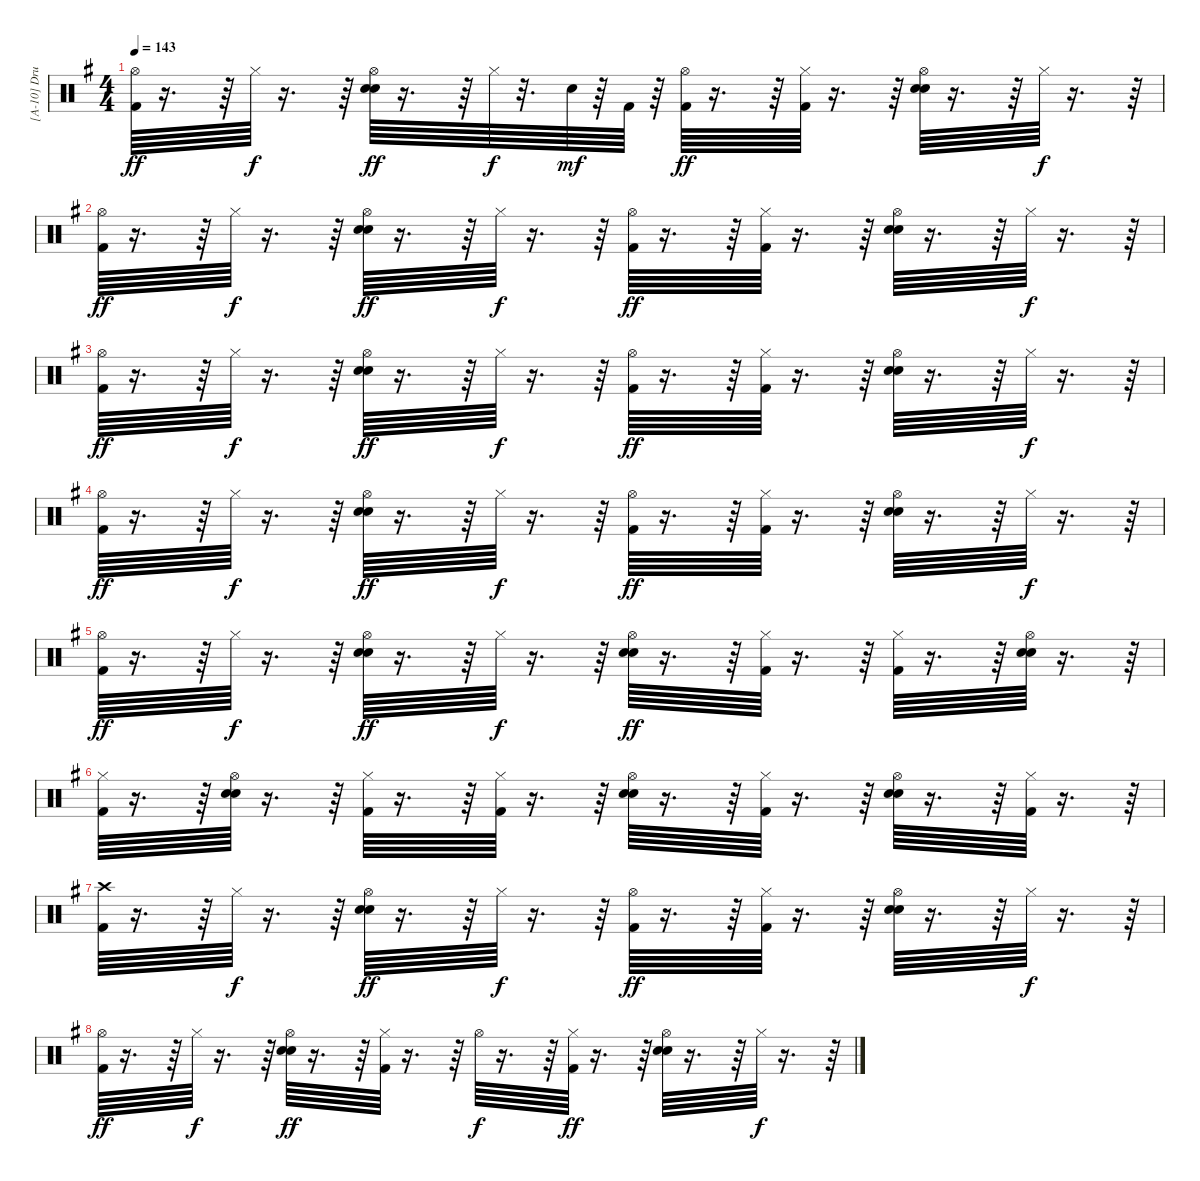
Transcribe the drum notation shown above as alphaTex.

\track ("[A-10] Drums" "[A-10] Dru") {instrument percussion}
\staff {score}
\articulation defaults
\ts (4 4)
\tempo 143
\clef neutral
\ks g
("Hi-Hat (open)" "Kick (hit) 2").64{dy ff} r.16{d} r.64 "Hi-Hat (closed)".64{dy f} r.16{d} r.64 ("Hi-Hat (open)" "Electric Snare (hit)" "Snare (hit) 2").64{dy ff} r.16{d} r.64 "Hi-Hat (closed)".64{dy f} r.32{d} "Snare (hit) 2".64{dy mf} r.64 "Kick (hit) 2".64 r.64 ("Hi-Hat (open)" "Kick (hit) 2").64{dy ff} r.16{d} r.64 ("Hi-Hat (closed)" "Kick (hit) 2").64 r.16{d} r.64 ("Hi-Hat (open)" "Electric Snare (hit)" "Snare (hit) 2").64 r.16{d} r.64 "Hi-Hat (closed)".64{dy f} r.16{d} r.64 |
("Hi-Hat (open)" "Kick (hit) 2").64{dy ff} r.16{d} r.64 "Hi-Hat (closed)".64{dy f} r.16{d} r.64 ("Hi-Hat (open)" "Electric Snare (hit)" "Snare (hit) 2").64{dy ff} r.16{d} r.64 "Hi-Hat (closed)".64{dy f} r.16{d} r.64 ("Hi-Hat (open)" "Kick (hit) 2").64{dy ff} r.16{d} r.64 ("Hi-Hat (closed)" "Kick (hit) 2").64 r.16{d} r.64 ("Hi-Hat (open)" "Electric Snare (hit)" "Snare (hit) 2").64 r.16{d} r.64 "Hi-Hat (closed)".64{dy f} r.16{d} r.64 |
("Hi-Hat (open)" "Kick (hit) 2").64{dy ff} r.16{d} r.64 "Hi-Hat (closed)".64{dy f} r.16{d} r.64 ("Hi-Hat (open)" "Electric Snare (hit)" "Snare (hit) 2").64{dy ff} r.16{d} r.64 "Hi-Hat (closed)".64{dy f} r.16{d} r.64 ("Hi-Hat (open)" "Kick (hit) 2").64{dy ff} r.16{d} r.64 ("Hi-Hat (closed)" "Kick (hit) 2").64 r.16{d} r.64 ("Hi-Hat (open)" "Electric Snare (hit)" "Snare (hit) 2").64 r.16{d} r.64 "Hi-Hat (closed)".64{dy f} r.16{d} r.64 |
("Hi-Hat (open)" "Kick (hit) 2").64{dy ff} r.16{d} r.64 "Hi-Hat (closed)".64{dy f} r.16{d} r.64 ("Hi-Hat (open)" "Electric Snare (hit)" "Snare (hit) 2").64{dy ff} r.16{d} r.64 "Hi-Hat (closed)".64{dy f} r.16{d} r.64 ("Hi-Hat (open)" "Kick (hit) 2").64{dy ff} r.16{d} r.64 ("Hi-Hat (closed)" "Kick (hit) 2").64 r.16{d} r.64 ("Hi-Hat (open)" "Electric Snare (hit)" "Snare (hit) 2").64 r.16{d} r.64 "Hi-Hat (closed)".64{dy f} r.16{d} r.64 |
("Hi-Hat (open)" "Kick (hit) 2").64{dy ff} r.16{d} r.64 "Hi-Hat (closed)".64{dy f} r.16{d} r.64 ("Hi-Hat (open)" "Electric Snare (hit)" "Snare (hit) 2").64{dy ff} r.16{d} r.64 "Hi-Hat (closed)".64{dy f} r.16{d} r.64 ("Hi-Hat (open)" "Electric Snare (hit)" "Snare (hit) 2").64{dy ff} r.16{d} r.64 ("Hi-Hat (closed)" "Kick (hit) 2").64 r.16{d} r.64 ("Hi-Hat (closed)" "Kick (hit) 2").64 r.16{d} r.64 ("Hi-Hat (open)" "Electric Snare (hit)" "Snare (hit) 2").64 r.16{d} r.64 |
("Hi-Hat (closed)" "Kick (hit) 2").64 r.16{d} r.64 ("Hi-Hat (open)" "Electric Snare (hit)" "Snare (hit) 2").64 r.16{d} r.64 ("Hi-Hat (closed)" "Kick (hit) 2").64 r.16{d} r.64 ("Hi-Hat (closed)" "Kick (hit) 2").64 r.16{d} r.64 ("Hi-Hat (open)" "Electric Snare (hit)" "Snare (hit) 2").64 r.16{d} r.64 ("Hi-Hat (closed)" "Kick (hit) 2").64 r.16{d} r.64 ("Hi-Hat (open)" "Electric Snare (hit)" "Snare (hit) 2").64 r.16{d} r.64 ("Hi-Hat (closed)" "Kick (hit) 2").64 r.16{d} r.64 |
("Crash high (hit)" "Kick (hit) 2").64 r.16{d} r.64 "Hi-Hat (closed)".64{dy f} r.16{d} r.64 ("Hi-Hat (open)" "Electric Snare (hit)" "Snare (hit) 2").64{dy ff} r.16{d} r.64 "Hi-Hat (closed)".64{dy f} r.16{d} r.64 ("Hi-Hat (open)" "Kick (hit) 2").64{dy ff} r.16{d} r.64 ("Hi-Hat (closed)" "Kick (hit) 2").64 r.16{d} r.64 ("Hi-Hat (open)" "Electric Snare (hit)" "Snare (hit) 2").64 r.16{d} r.64 "Hi-Hat (closed)".64{dy f} r.16{d} r.64 |
("Hi-Hat (open)" "Kick (hit) 2").64{dy ff} r.16{d} r.64 "Hi-Hat (closed)".64{dy f} r.16{d} r.64 ("Hi-Hat (open)" "Electric Snare (hit)" "Snare (hit) 2").64{dy ff} r.16{d} r.64 ("Hi-Hat (closed)" "Kick (hit) 2").64 r.16{d} r.64 "Hi-Hat (open)".64{dy f} r.16{d} r.64 ("Hi-Hat (closed)" "Kick (hit) 2").64{dy ff} r.16{d} r.64 ("Hi-Hat (open)" "Electric Snare (hit)" "Snare (hit) 2").64 r.16{d} r.64 "Hi-Hat (closed)".64{dy f} r.16{d} r.64
